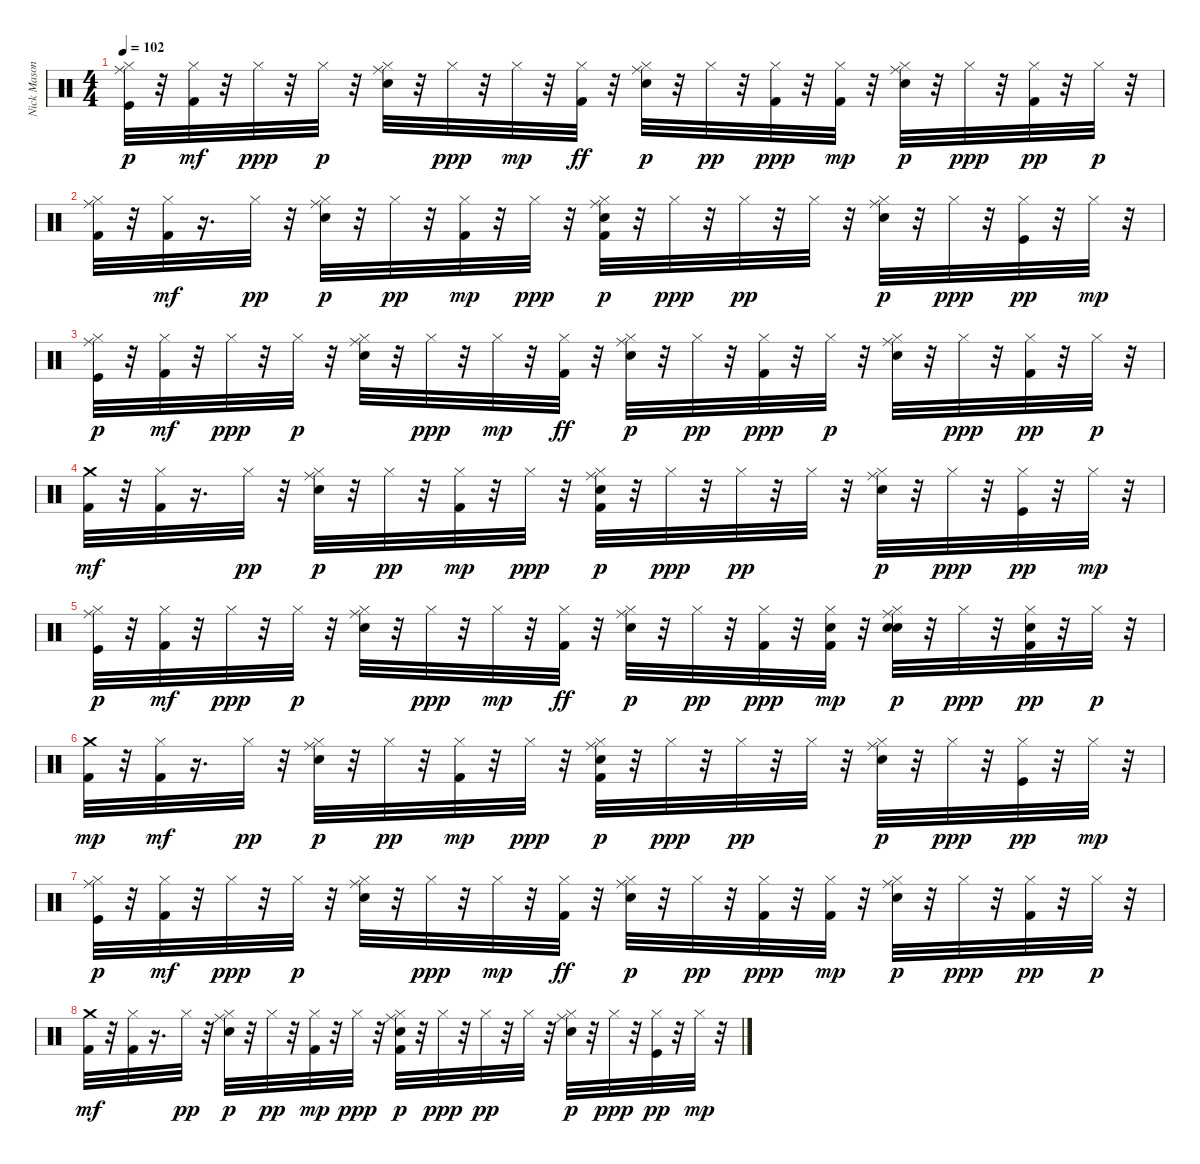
\track ("Nick Mason / Gary Wallis" "Nick Mason") {instrument percussion}
\staff {score}
\articulation defaults
\ts (4 4)
\tempo 102
\clef neutral
\ks c
("Kick (hit)" "Hi-Hat (closed)" "Ride (middle)").32{dy p} r.32 ("Hi-Hat (closed)" "Kick (hit) 2").32{dy mf} r.32 "Hi-Hat (closed)".32{dy ppp} r.32 "Hi-Hat (closed)".32{dy p} r.32 ("Snare (hit) 2" "Hi-Hat (closed)" "Ride (middle)").32 r.32 "Hi-Hat (closed)".32{dy ppp} r.32 "Hi-Hat (closed)".32{dy mp} r.32 ("Hi-Hat (closed)" "Kick (hit) 2").32{dy ff} r.32 ("Electric Snare (hit)" "Hi-Hat (closed)" "Ride (middle)").32{dy p} r.32 "Hi-Hat (closed)".32{dy pp} r.32 ("Hi-Hat (closed)" "Kick (hit) 2").32{dy ppp} r.32 ("Hi-Hat (closed)" "Kick (hit) 2").32{dy mp} r.32 ("Snare (hit) 2" "Hi-Hat (closed)" "Ride (middle)").32{dy p} r.32 "Hi-Hat (closed)".32{dy ppp} r.32 ("Kick (hit) 2" "Hi-Hat (closed)").32{dy pp} r.32 "Hi-Hat (closed)".32{dy p} r.32 |
("Kick (hit) 2" "Hi-Hat (closed)" "Ride (middle)").32 r.32 ("Hi-Hat (closed)" "Kick (hit) 2").32{dy mf} r.16{d} "Hi-Hat (closed)".32{dy pp} r.32 ("Snare (hit) 2" "Hi-Hat (closed)" "Ride (middle)").32{dy p} r.32 "Hi-Hat (closed)".32{dy pp} r.32 ("Kick (hit) 2" "Hi-Hat (closed)").32{dy mp} r.32 "Hi-Hat (closed)".32{dy ppp} r.32 ("Kick (hit) 2" "Electric Snare (hit)" "Hi-Hat (closed)" "Ride (middle)").32{dy p} r.32 "Hi-Hat (closed)".32{dy ppp} r.32 "Hi-Hat (closed)".32{dy pp} r.32 "Hi-Hat (closed)".32 r.32 ("Snare (hit) 2" "Hi-Hat (closed)" "Ride (middle)").32{dy p} r.32 "Hi-Hat (closed)".32{dy ppp} r.32 ("Kick (hit)" "Hi-Hat (closed)").32{dy pp} r.32 "Hi-Hat (closed)".32{dy mp} r.32 |
("Kick (hit)" "Hi-Hat (closed)" "Ride (middle)").32{dy p} r.32 ("Hi-Hat (closed)" "Kick (hit) 2").32{dy mf} r.32 "Hi-Hat (closed)".32{dy ppp} r.32 "Hi-Hat (closed)".32{dy p} r.32 ("Snare (hit) 2" "Hi-Hat (closed)" "Ride (middle)").32 r.32 "Hi-Hat (closed)".32{dy ppp} r.32 "Hi-Hat (closed)".32{dy mp} r.32 ("Hi-Hat (closed)" "Kick (hit) 2").32{dy ff} r.32 ("Electric Snare (hit)" "Hi-Hat (closed)" "Ride (middle)").32{dy p} r.32 "Hi-Hat (closed)".32{dy pp} r.32 ("Hi-Hat (closed)" "Kick (hit) 2").32{dy ppp} r.32 "Hi-Hat (closed)".32{dy p} r.32 ("Snare (hit) 2" "Hi-Hat (closed)" "Ride (middle)").32 r.32 "Hi-Hat (closed)".32{dy ppp} r.32 ("Kick (hit) 2" "Hi-Hat (closed)").32{dy pp} r.32 "Hi-Hat (closed)".32{dy p} r.32 |
("Kick (hit) 2" "Crash medium (hit)").32{dy mf} r.32 ("Hi-Hat (closed)" "Kick (hit) 2").32 r.16{d} "Hi-Hat (closed)".32{dy pp} r.32 ("Snare (hit) 2" "Hi-Hat (closed)" "Ride (middle)").32{dy p} r.32 "Hi-Hat (closed)".32{dy pp} r.32 ("Kick (hit) 2" "Hi-Hat (closed)").32{dy mp} r.32 "Hi-Hat (closed)".32{dy ppp} r.32 ("Kick (hit) 2" "Electric Snare (hit)" "Hi-Hat (closed)" "Ride (middle)").32{dy p} r.32 "Hi-Hat (closed)".32{dy ppp} r.32 "Hi-Hat (closed)".32{dy pp} r.32 "Hi-Hat (closed)".32 r.32 ("Snare (hit) 2" "Hi-Hat (closed)" "Ride (middle)").32{dy p} r.32 "Hi-Hat (closed)".32{dy ppp} r.32 ("Kick (hit)" "Hi-Hat (closed)").32{dy pp} r.32 "Hi-Hat (closed)".32{dy mp} r.32 |
("Kick (hit)" "Hi-Hat (closed)" "Ride (middle)").32{dy p} r.32 ("Hi-Hat (closed)" "Kick (hit) 2").32{dy mf} r.32 "Hi-Hat (closed)".32{dy ppp} r.32 "Hi-Hat (closed)".32{dy p} r.32 ("Snare (hit) 2" "Hi-Hat (closed)" "Ride (middle)").32 r.32 "Hi-Hat (closed)".32{dy ppp} r.32 "Hi-Hat (closed)".32{dy mp} r.32 ("Hi-Hat (closed)" "Kick (hit) 2").32{dy ff} r.32 ("Electric Snare (hit)" "Hi-Hat (closed)" "Ride (middle)").32{dy p} r.32 "Hi-Hat (closed)".32{dy pp} r.32 ("Hi-Hat (closed)" "Kick (hit) 2").32{dy ppp} r.32 ("Electric Snare (hit)" "Hi-Hat (closed)" "Kick (hit) 2").32{dy mp} r.32 ("Snare (hit) 2" "Electric Snare (hit)" "Hi-Hat (closed)" "Ride (middle)").32{dy p} r.32 "Hi-Hat (closed)".32{dy ppp} r.32 ("Kick (hit) 2" "Electric Snare (hit)" "Hi-Hat (closed)").32{dy pp} r.32 "Hi-Hat (closed)".32{dy p} r.32 |
("Kick (hit) 2" "Crash medium (hit)").32{dy mp} r.32 ("Hi-Hat (closed)" "Kick (hit) 2").32{dy mf} r.16{d} "Hi-Hat (closed)".32{dy pp} r.32 ("Snare (hit) 2" "Hi-Hat (closed)" "Ride (middle)").32{dy p} r.32 "Hi-Hat (closed)".32{dy pp} r.32 ("Kick (hit) 2" "Hi-Hat (closed)").32{dy mp} r.32 "Hi-Hat (closed)".32{dy ppp} r.32 ("Kick (hit) 2" "Electric Snare (hit)" "Hi-Hat (closed)" "Ride (middle)").32{dy p} r.32 "Hi-Hat (closed)".32{dy ppp} r.32 "Hi-Hat (closed)".32{dy pp} r.32 "Hi-Hat (closed)".32 r.32 ("Snare (hit) 2" "Hi-Hat (closed)" "Ride (middle)").32{dy p} r.32 "Hi-Hat (closed)".32{dy ppp} r.32 ("Kick (hit)" "Hi-Hat (closed)").32{dy pp} r.32 "Hi-Hat (closed)".32{dy mp} r.32 |
("Kick (hit)" "Hi-Hat (closed)" "Ride (middle)").32{dy p} r.32 ("Hi-Hat (closed)" "Kick (hit) 2").32{dy mf} r.32 "Hi-Hat (closed)".32{dy ppp} r.32 "Hi-Hat (closed)".32{dy p} r.32 ("Snare (hit) 2" "Hi-Hat (closed)" "Ride (middle)").32 r.32 "Hi-Hat (closed)".32{dy ppp} r.32 "Hi-Hat (closed)".32{dy mp} r.32 ("Hi-Hat (closed)" "Kick (hit) 2").32{dy ff} r.32 ("Electric Snare (hit)" "Hi-Hat (closed)" "Ride (middle)").32{dy p} r.32 "Hi-Hat (closed)".32{dy pp} r.32 ("Hi-Hat (closed)" "Kick (hit) 2").32{dy ppp} r.32 ("Hi-Hat (closed)" "Kick (hit) 2").32{dy mp} r.32 ("Snare (hit) 2" "Hi-Hat (closed)" "Ride (middle)").32{dy p} r.32 "Hi-Hat (closed)".32{dy ppp} r.32 ("Kick (hit) 2" "Hi-Hat (closed)").32{dy pp} r.32 "Hi-Hat (closed)".32{dy p} r.32 |
("Kick (hit) 2" "Crash medium (hit)").32{dy mf} r.32 ("Hi-Hat (closed)" "Kick (hit) 2").32 r.16{d} "Hi-Hat (closed)".32{dy pp} r.32 ("Snare (hit) 2" "Hi-Hat (closed)" "Ride (middle)").32{dy p} r.32 "Hi-Hat (closed)".32{dy pp} r.32 ("Kick (hit) 2" "Hi-Hat (closed)").32{dy mp} r.32 "Hi-Hat (closed)".32{dy ppp} r.32 ("Kick (hit) 2" "Electric Snare (hit)" "Hi-Hat (closed)" "Ride (middle)").32{dy p} r.32 "Hi-Hat (closed)".32{dy ppp} r.32 "Hi-Hat (closed)".32{dy pp} r.32 "Hi-Hat (closed)".32 r.32 ("Snare (hit) 2" "Hi-Hat (closed)" "Ride (middle)").32{dy p} r.32 "Hi-Hat (closed)".32{dy ppp} r.32 ("Kick (hit)" "Hi-Hat (closed)").32{dy pp} r.32 "Hi-Hat (closed)".32{dy mp} r.32
